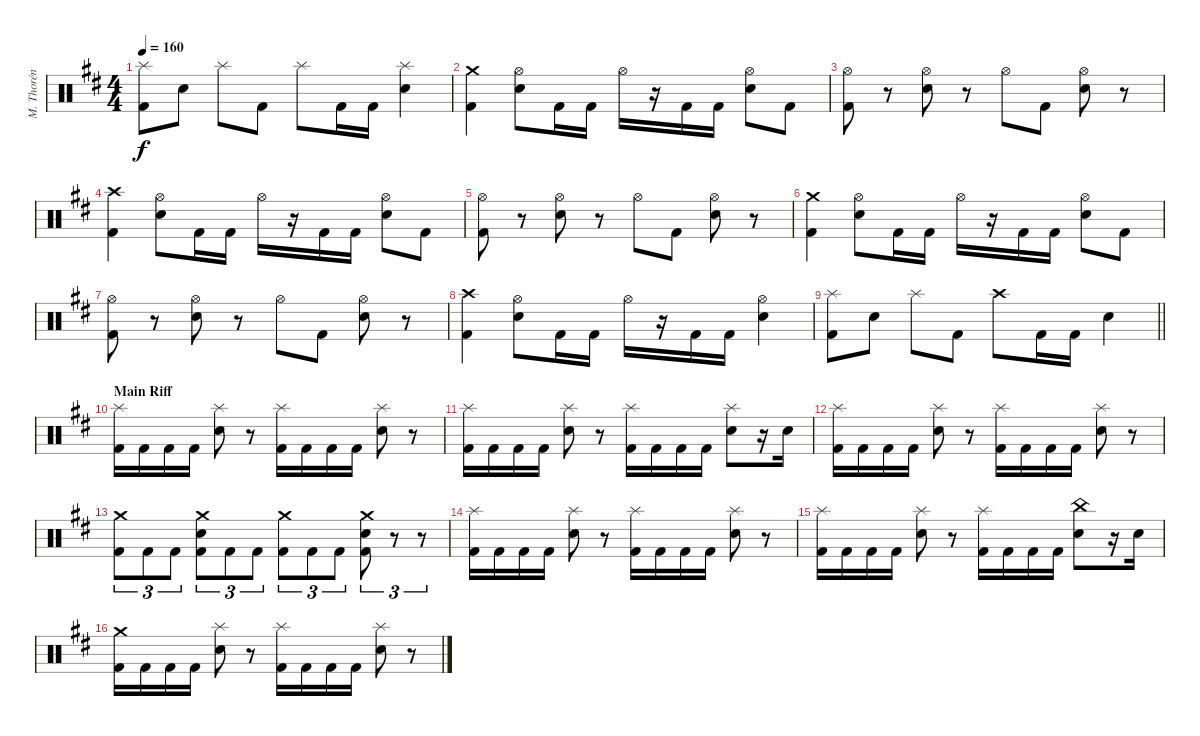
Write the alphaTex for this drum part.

\track ("M. Thorén (Drums)" "M. Thorén ") {instrument percussion}
\staff {score}
\articulation defaults
\ts (4 4)
\tempo 160
\clef neutral
\ks bminor
("Splash (hit)" "Kick (hit) 2").8{dy f} "Electric Snare (hit)".8 "Splash (hit)".8 "Kick (hit) 2".8 "Splash (hit)".8 "Kick (hit) 2".16 "Kick (hit) 2".16 ("Splash (hit)" "Electric Snare (hit)").4 |
("Crash medium (hit)" "Kick (hit) 2").4 ("Hi-Hat (open)" "Electric Snare (hit)").8 "Kick (hit) 2".16 "Kick (hit) 2".16 "Hi-Hat (open)".16 r.16 "Kick (hit) 2".16 "Kick (hit) 2".16 ("Hi-Hat (open)" "Electric Snare (hit)").8 "Kick (hit) 2".8 |
("Hi-Hat (open)" "Kick (hit) 2").8 r.8 ("Hi-Hat (open)" "Electric Snare (hit)").8 r.8 "Hi-Hat (open)".8 "Kick (hit) 2".8 ("Hi-Hat (open)" "Electric Snare (hit)").8 r.8 |
("Crash high (hit)" "Kick (hit) 2").4 ("Hi-Hat (open)" "Electric Snare (hit)").8 "Kick (hit) 2".16 "Kick (hit) 2".16 "Hi-Hat (open)".16 r.16 "Kick (hit) 2".16 "Kick (hit) 2".16 ("Hi-Hat (open)" "Electric Snare (hit)").8 "Kick (hit) 2".8 |
("Hi-Hat (open)" "Kick (hit) 2").8 r.8 ("Hi-Hat (open)" "Electric Snare (hit)").8 r.8 "Hi-Hat (open)".8 "Kick (hit) 2".8 ("Hi-Hat (open)" "Electric Snare (hit)").8 r.8 |
("Crash medium (hit)" "Kick (hit) 2").4 ("Hi-Hat (open)" "Electric Snare (hit)").8 "Kick (hit) 2".16 "Kick (hit) 2".16 "Hi-Hat (open)".16 r.16 "Kick (hit) 2".16 "Kick (hit) 2".16 ("Hi-Hat (open)" "Electric Snare (hit)").8 "Kick (hit) 2".8 |
("Hi-Hat (open)" "Kick (hit) 2").8 r.8 ("Hi-Hat (open)" "Electric Snare (hit)").8 r.8 "Hi-Hat (open)".8 "Kick (hit) 2".8 ("Hi-Hat (open)" "Electric Snare (hit)").8 r.8 |
("Crash high (hit)" "Kick (hit) 2").4 ("Hi-Hat (open)" "Electric Snare (hit)").8 "Kick (hit) 2".16 "Kick (hit) 2".16 "Hi-Hat (open)".16 r.16 "Kick (hit) 2".16 "Kick (hit) 2".16 ("Hi-Hat (open)" "Electric Snare (hit)").4 |
\barLineRight lightlight
("Splash (hit)" "Kick (hit) 2").8 "Electric Snare (hit)".8 "Splash (hit)".8 "Kick (hit) 2".8 "Crash high (hit)".8 "Kick (hit) 2".16 "Kick (hit) 2".16 "Electric Snare (hit)".4 |
\section ("" "Main Riff")
("Splash (hit)" "Kick (hit) 2").16 "Kick (hit) 2".16 "Kick (hit) 2".16 "Kick (hit) 2".16 ("Splash (hit)" "Electric Snare (hit)").8 r.8 ("Splash (hit)" "Kick (hit) 2").16 "Kick (hit) 2".16 "Kick (hit) 2".16 "Kick (hit) 2".16 ("Splash (hit)" "Electric Snare (hit)").8 r.8 |
("Splash (hit)" "Kick (hit) 2").16 "Kick (hit) 2".16 "Kick (hit) 2".16 "Kick (hit) 2".16 ("Splash (hit)" "Electric Snare (hit)").8 r.8 ("Splash (hit)" "Kick (hit) 2").16 "Kick (hit) 2".16 "Kick (hit) 2".16 "Kick (hit) 2".16 ("Splash (hit)" "Electric Snare (hit)").8 r.16 "Electric Snare (hit)".16 |
("Splash (hit)" "Kick (hit) 2").16 "Kick (hit) 2".16 "Kick (hit) 2".16 "Kick (hit) 2".16 ("Splash (hit)" "Electric Snare (hit)").8 r.8 ("Splash (hit)" "Kick (hit) 2").16 "Kick (hit) 2".16 "Kick (hit) 2".16 "Kick (hit) 2".16 ("Splash (hit)" "Electric Snare (hit)").8 r.8 |
("Crash medium (hit)" "Kick (hit) 2").8{tu (3 2)} "Kick (hit) 2".8{tu (3 2)} "Kick (hit) 2".8{tu (3 2)} ("Crash medium (hit)" "Electric Snare (hit)" "Kick (hit) 2").8{tu (3 2)} "Kick (hit) 2".8{tu (3 2)} "Kick (hit) 2".8{tu (3 2)} ("Crash medium (hit)" "Kick (hit) 2").8{tu (3 2)} "Kick (hit) 2".8{tu (3 2)} "Kick (hit) 2".8{tu (3 2)} ("Crash medium (hit)" "Electric Snare (hit)" "Kick (hit) 2").8{tu (3 2)} r.8{tu (3 2)} r.8{tu (3 2)} |
("Splash (hit)" "Kick (hit) 2").16 "Kick (hit) 2".16 "Kick (hit) 2".16 "Kick (hit) 2".16 ("Splash (hit)" "Electric Snare (hit)").8 r.8 ("Splash (hit)" "Kick (hit) 2").16 "Kick (hit) 2".16 "Kick (hit) 2".16 "Kick (hit) 2".16 ("Splash (hit)" "Electric Snare (hit)").8 r.8 |
("Splash (hit)" "Kick (hit) 2").16 "Kick (hit) 2".16 "Kick (hit) 2".16 "Kick (hit) 2".16 ("Splash (hit)" "Electric Snare (hit)").8 r.8 ("Splash (hit)" "Kick (hit) 2").16 "Kick (hit) 2".16 "Kick (hit) 2".16 "Kick (hit) 2".16 ("China (hit)" "Electric Snare (hit)").8 r.16 "Electric Snare (hit)".16 |
("Crash medium (hit)" "Kick (hit) 2").16 "Kick (hit) 2".16 "Kick (hit) 2".16 "Kick (hit) 2".16 ("Splash (hit)" "Electric Snare (hit)").8 r.8 ("Splash (hit)" "Kick (hit) 2").16 "Kick (hit) 2".16 "Kick (hit) 2".16 "Kick (hit) 2".16 ("Splash (hit)" "Electric Snare (hit)").8 r.8
